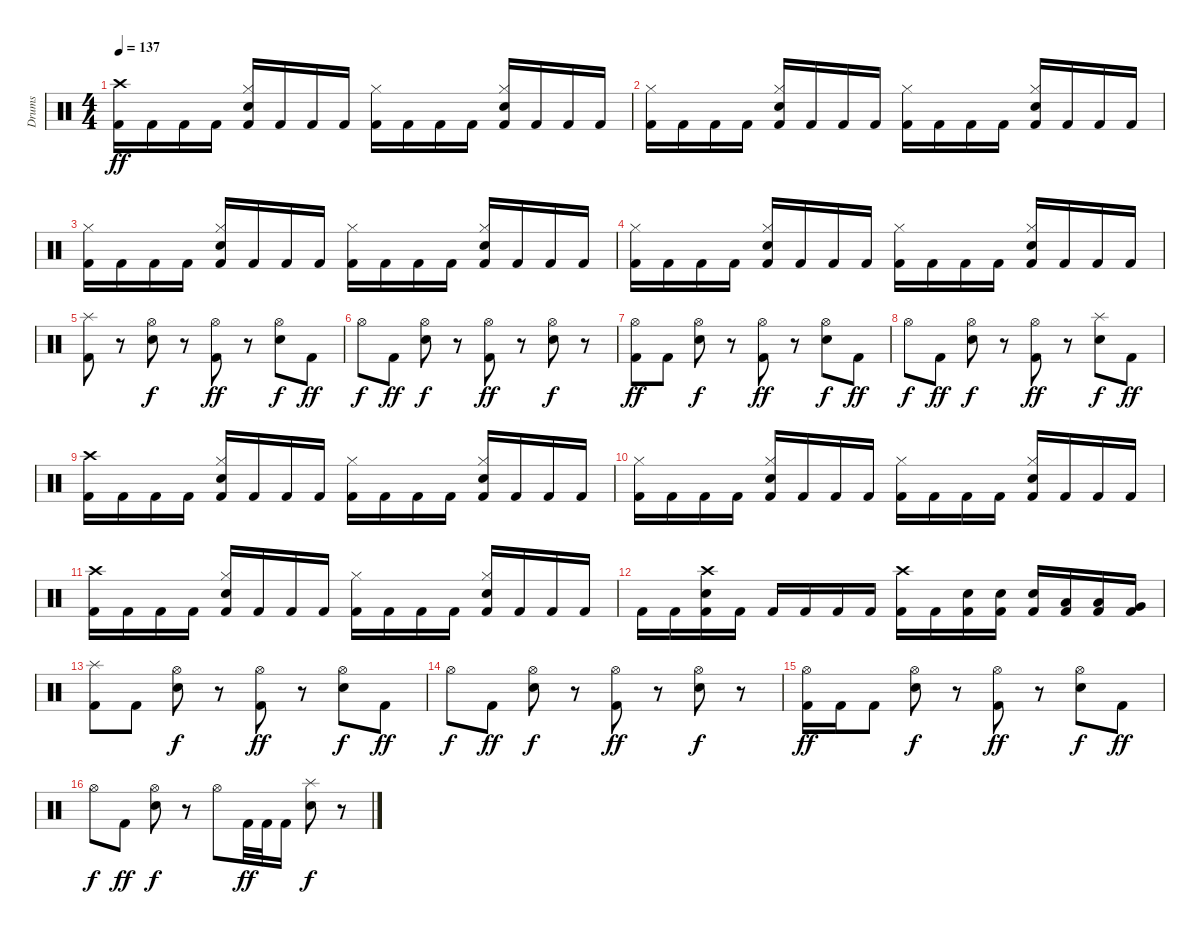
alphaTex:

\track ("Drums" "Drums") {instrument percussion}
\staff {score}
\articulation defaults
\ts (4 4)
\tempo 137
\clef neutral
\ks c
("Crash high (hit)" "Kick (hit) 2").16{dy ff} "Kick (hit) 2".16 "Kick (hit) 2".16 "Kick (hit) 2".16 ("Hi-Hat (closed)" "Electric Snare (hit)" "Kick (hit) 2").16 "Kick (hit) 2".16 "Kick (hit) 2".16 "Kick (hit) 2".16 ("Hi-Hat (closed)" "Kick (hit) 2").16 "Kick (hit) 2".16 "Kick (hit) 2".16 "Kick (hit) 2".16 ("Hi-Hat (closed)" "Electric Snare (hit)" "Kick (hit) 2").16 "Kick (hit) 2".16 "Kick (hit) 2".16 "Kick (hit) 2".16 |
("Hi-Hat (closed)" "Kick (hit) 2").16 "Kick (hit) 2".16 "Kick (hit) 2".16 "Kick (hit) 2".16 ("Hi-Hat (closed)" "Electric Snare (hit)" "Kick (hit) 2").16 "Kick (hit) 2".16 "Kick (hit) 2".16 "Kick (hit) 2".16 ("Hi-Hat (closed)" "Kick (hit) 2").16 "Kick (hit) 2".16 "Kick (hit) 2".16 "Kick (hit) 2".16 ("Hi-Hat (closed)" "Electric Snare (hit)" "Kick (hit) 2").16 "Kick (hit) 2".16 "Kick (hit) 2".16 "Kick (hit) 2".16 |
("Hi-Hat (closed)" "Kick (hit) 2").16 "Kick (hit) 2".16 "Kick (hit) 2".16 "Kick (hit) 2".16 ("Hi-Hat (closed)" "Electric Snare (hit)" "Kick (hit) 2").16 "Kick (hit) 2".16 "Kick (hit) 2".16 "Kick (hit) 2".16 ("Hi-Hat (closed)" "Kick (hit) 2").16 "Kick (hit) 2".16 "Kick (hit) 2".16 "Kick (hit) 2".16 ("Hi-Hat (closed)" "Electric Snare (hit)" "Kick (hit) 2").16 "Kick (hit) 2".16 "Kick (hit) 2".16 "Kick (hit) 2".16 |
("Hi-Hat (closed)" "Kick (hit) 2").16 "Kick (hit) 2".16 "Kick (hit) 2".16 "Kick (hit) 2".16 ("Hi-Hat (closed)" "Electric Snare (hit)" "Kick (hit) 2").16 "Kick (hit) 2".16 "Kick (hit) 2".16 "Kick (hit) 2".16 ("Hi-Hat (closed)" "Kick (hit) 2").16 "Kick (hit) 2".16 "Kick (hit) 2".16 "Kick (hit) 2".16 ("Hi-Hat (closed)" "Electric Snare (hit)" "Kick (hit) 2").16 "Kick (hit) 2".16 "Kick (hit) 2".16 "Kick (hit) 2".16 |
("Splash (hit)" "Kick (hit) 2").8 r.8 ("Hi-Hat (open)" "Electric Snare (hit)").8{dy f} r.8 ("Hi-Hat (open)" "Kick (hit) 2").8{dy ff} r.8 ("Hi-Hat (open)" "Electric Snare (hit)").8{dy f} "Kick (hit) 2".8{dy ff} |
"Hi-Hat (open)".8{dy f} "Kick (hit) 2".8{dy ff} ("Hi-Hat (open)" "Electric Snare (hit)").8{dy f} r.8 ("Hi-Hat (open)" "Kick (hit) 2").8{dy ff} r.8 ("Hi-Hat (open)" "Electric Snare (hit)").8{dy f} r.8 |
("Hi-Hat (open)" "Kick (hit) 2").8{dy ff} "Kick (hit) 2".8 ("Hi-Hat (open)" "Electric Snare (hit)").8{dy f} r.8 ("Hi-Hat (open)" "Kick (hit) 2").8{dy ff} r.8 ("Hi-Hat (open)" "Electric Snare (hit)").8{dy f} "Kick (hit) 2".8{dy ff} |
"Hi-Hat (open)".8{dy f} "Kick (hit) 2".8{dy ff} ("Hi-Hat (open)" "Electric Snare (hit)").8{dy f} r.8 ("Hi-Hat (open)" "Kick (hit) 2").8{dy ff} r.8 ("Splash (hit)" "Electric Snare (hit)").8{dy f} "Kick (hit) 2".8{dy ff} |
("Crash high (hit)" "Kick (hit) 2").16 "Kick (hit) 2".16 "Kick (hit) 2".16 "Kick (hit) 2".16 ("Hi-Hat (closed)" "Electric Snare (hit)" "Kick (hit) 2").16 "Kick (hit) 2".16 "Kick (hit) 2".16 "Kick (hit) 2".16 ("Hi-Hat (closed)" "Kick (hit) 2").16 "Kick (hit) 2".16 "Kick (hit) 2".16 "Kick (hit) 2".16 ("Hi-Hat (closed)" "Electric Snare (hit)" "Kick (hit) 2").16 "Kick (hit) 2".16 "Kick (hit) 2".16 "Kick (hit) 2".16 |
("Hi-Hat (closed)" "Kick (hit) 2").16 "Kick (hit) 2".16 "Kick (hit) 2".16 "Kick (hit) 2".16 ("Hi-Hat (closed)" "Electric Snare (hit)" "Kick (hit) 2").16 "Kick (hit) 2".16 "Kick (hit) 2".16 "Kick (hit) 2".16 ("Hi-Hat (closed)" "Kick (hit) 2").16 "Kick (hit) 2".16 "Kick (hit) 2".16 "Kick (hit) 2".16 ("Hi-Hat (closed)" "Electric Snare (hit)" "Kick (hit) 2").16 "Kick (hit) 2".16 "Kick (hit) 2".16 "Kick (hit) 2".16 |
("Crash high (hit)" "Kick (hit) 2").16 "Kick (hit) 2".16 "Kick (hit) 2".16 "Kick (hit) 2".16 ("Hi-Hat (closed)" "Electric Snare (hit)" "Kick (hit) 2").16 "Kick (hit) 2".16 "Kick (hit) 2".16 "Kick (hit) 2".16 ("Hi-Hat (closed)" "Kick (hit) 2").16 "Kick (hit) 2".16 "Kick (hit) 2".16 "Kick (hit) 2".16 ("Hi-Hat (closed)" "Electric Snare (hit)" "Kick (hit) 2").16 "Kick (hit) 2".16 "Kick (hit) 2".16 "Kick (hit) 2".16 |
"Kick (hit) 2".16 "Kick (hit) 2".16 ("Crash high (hit)" "Electric Snare (hit)" "Kick (hit) 2").16 "Kick (hit) 2".16 "Kick (hit) 2".16 "Kick (hit) 2".16 "Kick (hit) 2".16 "Kick (hit) 2".16 ("Crash high (hit)" "Kick (hit) 2").16 "Kick (hit) 2".16 ("Electric Snare (hit)" "Kick (hit) 2").16 ("Electric Snare (hit)" "Kick (hit) 2").16 ("Electric Snare (hit)" "Kick (hit) 2").16 ("Low Tom (hit)" "Kick (hit) 2").16 ("Low Tom (hit)" "Kick (hit) 2").16 ("Very Low Tom (hit)" "Kick (hit) 2").16 |
("Splash (hit)" "Kick (hit) 2").8 "Kick (hit) 2".8 ("Hi-Hat (open)" "Electric Snare (hit)").8{dy f} r.8 ("Hi-Hat (open)" "Kick (hit) 2").8{dy ff} r.8 ("Hi-Hat (open)" "Electric Snare (hit)").8{dy f} "Kick (hit) 2".8{dy ff} |
"Hi-Hat (open)".8{dy f} "Kick (hit) 2".8{dy ff} ("Hi-Hat (open)" "Electric Snare (hit)").8{dy f} r.8 ("Hi-Hat (open)" "Kick (hit) 2").8{dy ff} r.8 ("Hi-Hat (open)" "Electric Snare (hit)").8{dy f} r.8 |
("Hi-Hat (open)" "Kick (hit) 2").16{dy ff} "Kick (hit) 2".16 "Kick (hit) 2".8 ("Hi-Hat (open)" "Electric Snare (hit)").8{dy f} r.8 ("Hi-Hat (open)" "Kick (hit) 2").8{dy ff} r.8 ("Hi-Hat (open)" "Electric Snare (hit)").8{dy f} "Kick (hit) 2".8{dy ff} |
"Hi-Hat (open)".8{dy f} "Kick (hit) 2".8{dy ff} ("Hi-Hat (open)" "Electric Snare (hit)").8{dy f} r.8 "Hi-Hat (open)".8 "Kick (hit) 2".32{dy ff} "Kick (hit) 2".32 "Kick (hit) 2".16 ("Splash (hit)" "Electric Snare (hit)").8{dy f} r.8
